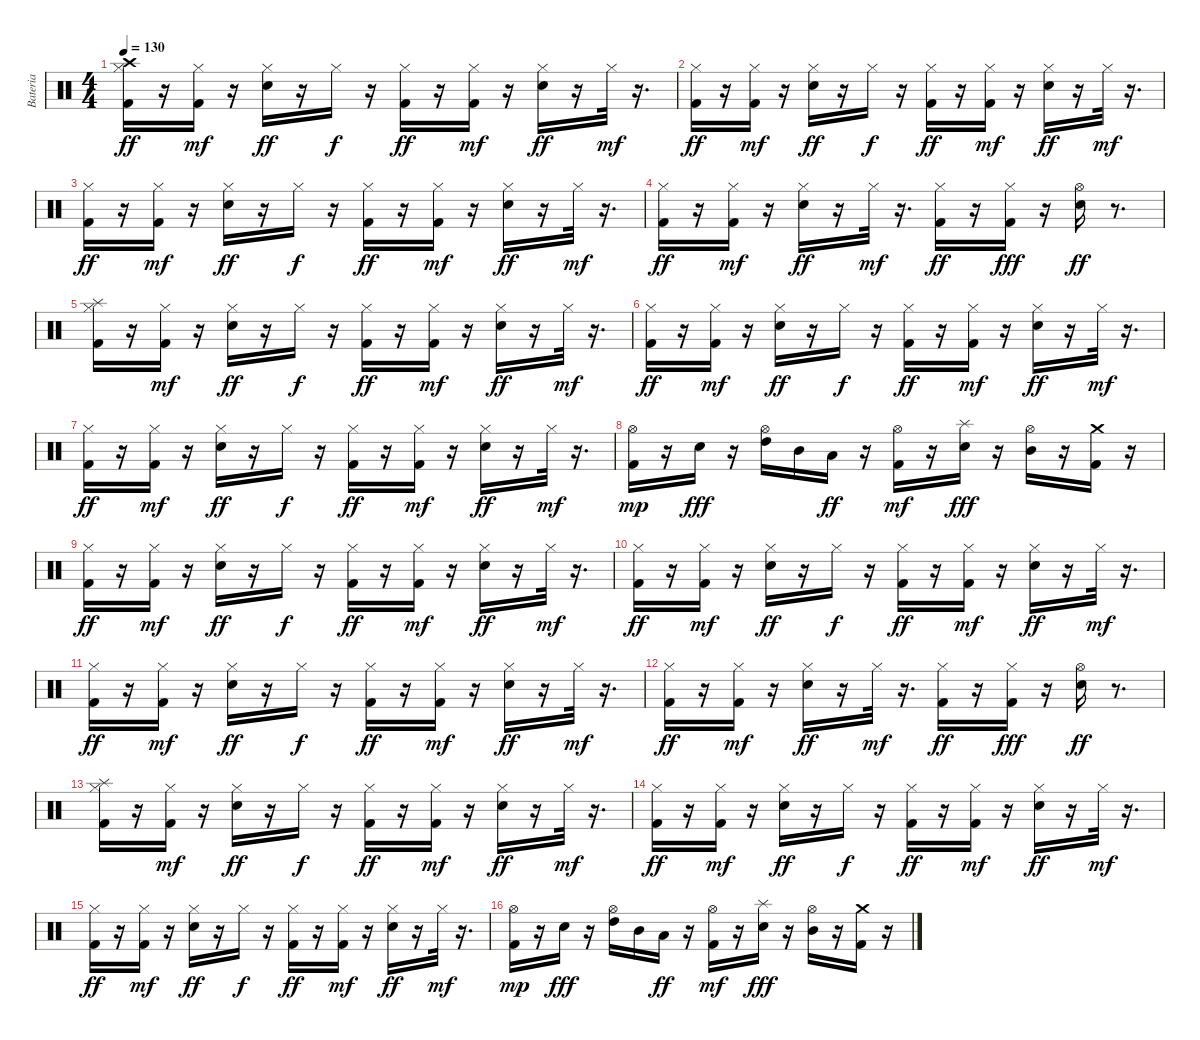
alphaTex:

\track ("Bateria" "Bateria") {instrument percussion}
\staff {score}
\articulation defaults
\ts (4 4)
\tempo 130
\clef neutral
\ks c
("Kick (hit) 2" "Hi-Hat (closed)" "Crash high (hit)").16{dy ff} r.16 ("Kick (hit) 2" "Hi-Hat (closed)").16{dy mf} r.16 ("Electric Snare (hit)" "Hi-Hat (closed)").16{dy ff} r.16 "Hi-Hat (closed)".16{dy f} r.16 ("Kick (hit) 2" "Hi-Hat (closed)").16{dy ff} r.16 ("Kick (hit) 2" "Hi-Hat (closed)").16{dy mf} r.16 ("Electric Snare (hit)" "Hi-Hat (closed)").16{dy ff} r.16 "Hi-Hat (closed)".32{dy mf} r.16{d} |
("Kick (hit) 2" "Hi-Hat (closed)").16{dy ff} r.16 ("Kick (hit) 2" "Hi-Hat (closed)").16{dy mf} r.16 ("Electric Snare (hit)" "Hi-Hat (closed)").16{dy ff} r.16 "Hi-Hat (closed)".16{dy f} r.16 ("Kick (hit) 2" "Hi-Hat (closed)").16{dy ff} r.16 ("Kick (hit) 2" "Hi-Hat (closed)").16{dy mf} r.16 ("Electric Snare (hit)" "Hi-Hat (closed)").16{dy ff} r.16 "Hi-Hat (closed)".32{dy mf} r.16{d} |
("Kick (hit) 2" "Hi-Hat (closed)").16{dy ff} r.16 ("Kick (hit) 2" "Hi-Hat (closed)").16{dy mf} r.16 ("Electric Snare (hit)" "Hi-Hat (closed)").16{dy ff} r.16 "Hi-Hat (closed)".16{dy f} r.16 ("Kick (hit) 2" "Hi-Hat (closed)").16{dy ff} r.16 ("Kick (hit) 2" "Hi-Hat (closed)").16{dy mf} r.16 ("Electric Snare (hit)" "Hi-Hat (closed)").16{dy ff} r.16 "Hi-Hat (closed)".32{dy mf} r.16{d} |
("Kick (hit) 2" "Hi-Hat (closed)").16{dy ff} r.16 ("Kick (hit) 2" "Hi-Hat (closed)").16{dy mf} r.16 ("Electric Snare (hit)" "Hi-Hat (closed)").16{dy ff} r.16 "Hi-Hat (closed)".32{dy mf} r.16{d} ("Kick (hit) 2" "Hi-Hat (closed)").16{dy ff} r.16 ("Kick (hit) 2" "Hi-Hat (closed)").16{dy fff} r.16 ("Electric Snare (hit)" "Hi-Hat (open)").16{dy ff} r.8{d} |
("Kick (hit) 2" "Hi-Hat (closed)" "Splash (hit)").16 r.16 ("Kick (hit) 2" "Hi-Hat (closed)").16{dy mf} r.16 ("Electric Snare (hit)" "Hi-Hat (closed)").16{dy ff} r.16 "Hi-Hat (closed)".16{dy f} r.16 ("Kick (hit) 2" "Hi-Hat (closed)").16{dy ff} r.16 ("Kick (hit) 2" "Hi-Hat (closed)").16{dy mf} r.16 ("Electric Snare (hit)" "Hi-Hat (closed)").16{dy ff} r.16 "Hi-Hat (closed)".32{dy mf} r.16{d} |
("Kick (hit) 2" "Hi-Hat (closed)").16{dy ff} r.16 ("Kick (hit) 2" "Hi-Hat (closed)").16{dy mf} r.16 ("Electric Snare (hit)" "Hi-Hat (closed)").16{dy ff} r.16 "Hi-Hat (closed)".16{dy f} r.16 ("Kick (hit) 2" "Hi-Hat (closed)").16{dy ff} r.16 ("Kick (hit) 2" "Hi-Hat (closed)").16{dy mf} r.16 ("Electric Snare (hit)" "Hi-Hat (closed)").16{dy ff} r.16 "Hi-Hat (closed)".32{dy mf} r.16{d} |
("Kick (hit) 2" "Hi-Hat (closed)").16{dy ff} r.16 ("Kick (hit) 2" "Hi-Hat (closed)").16{dy mf} r.16 ("Electric Snare (hit)" "Hi-Hat (closed)").16{dy ff} r.16 "Hi-Hat (closed)".16{dy f} r.16 ("Kick (hit) 2" "Hi-Hat (closed)").16{dy ff} r.16 ("Kick (hit) 2" "Hi-Hat (closed)").16{dy mf} r.16 ("Electric Snare (hit)" "Hi-Hat (closed)").16{dy ff} r.16 "Hi-Hat (closed)".32{dy mf} r.16{d} |
("Kick (hit) 2" "Hi-Hat (open)").16{dy mp} r.16 "Electric Snare (hit)".16{dy fff} r.16 ("Hi-Hat (open)" "High Tom (hit)").16 "Mid Tom (hit)".16 "Low Tom (hit)".16{dy ff} r.16 ("Kick (hit) 2" "Hi-Hat (open)").16{dy mf} r.16 ("Electric Snare (hit)" "Splash (hit)").16{dy fff} r.16 ("Hi-Hat (open)" "Mid Tom (hit)").16 r.16 ("Kick (hit) 2" "Crash medium (hit)").16 r.16 |
("Kick (hit) 2" "Hi-Hat (closed)").16{dy ff} r.16 ("Kick (hit) 2" "Hi-Hat (closed)").16{dy mf} r.16 ("Electric Snare (hit)" "Hi-Hat (closed)").16{dy ff} r.16 "Hi-Hat (closed)".16{dy f} r.16 ("Kick (hit) 2" "Hi-Hat (closed)").16{dy ff} r.16 ("Kick (hit) 2" "Hi-Hat (closed)").16{dy mf} r.16 ("Electric Snare (hit)" "Hi-Hat (closed)").16{dy ff} r.16 "Hi-Hat (closed)".32{dy mf} r.16{d} |
("Kick (hit) 2" "Hi-Hat (closed)").16{dy ff} r.16 ("Kick (hit) 2" "Hi-Hat (closed)").16{dy mf} r.16 ("Electric Snare (hit)" "Hi-Hat (closed)").16{dy ff} r.16 "Hi-Hat (closed)".16{dy f} r.16 ("Kick (hit) 2" "Hi-Hat (closed)").16{dy ff} r.16 ("Kick (hit) 2" "Hi-Hat (closed)").16{dy mf} r.16 ("Electric Snare (hit)" "Hi-Hat (closed)").16{dy ff} r.16 "Hi-Hat (closed)".32{dy mf} r.16{d} |
("Kick (hit) 2" "Hi-Hat (closed)").16{dy ff} r.16 ("Kick (hit) 2" "Hi-Hat (closed)").16{dy mf} r.16 ("Electric Snare (hit)" "Hi-Hat (closed)").16{dy ff} r.16 "Hi-Hat (closed)".16{dy f} r.16 ("Kick (hit) 2" "Hi-Hat (closed)").16{dy ff} r.16 ("Kick (hit) 2" "Hi-Hat (closed)").16{dy mf} r.16 ("Electric Snare (hit)" "Hi-Hat (closed)").16{dy ff} r.16 "Hi-Hat (closed)".32{dy mf} r.16{d} |
("Kick (hit) 2" "Hi-Hat (closed)").16{dy ff} r.16 ("Kick (hit) 2" "Hi-Hat (closed)").16{dy mf} r.16 ("Electric Snare (hit)" "Hi-Hat (closed)").16{dy ff} r.16 "Hi-Hat (closed)".32{dy mf} r.16{d} ("Kick (hit) 2" "Hi-Hat (closed)").16{dy ff} r.16 ("Kick (hit) 2" "Hi-Hat (closed)").16{dy fff} r.16 ("Electric Snare (hit)" "Hi-Hat (open)").16{dy ff} r.8{d} |
("Kick (hit) 2" "Hi-Hat (closed)" "Splash (hit)").16 r.16 ("Kick (hit) 2" "Hi-Hat (closed)").16{dy mf} r.16 ("Electric Snare (hit)" "Hi-Hat (closed)").16{dy ff} r.16 "Hi-Hat (closed)".16{dy f} r.16 ("Kick (hit) 2" "Hi-Hat (closed)").16{dy ff} r.16 ("Kick (hit) 2" "Hi-Hat (closed)").16{dy mf} r.16 ("Electric Snare (hit)" "Hi-Hat (closed)").16{dy ff} r.16 "Hi-Hat (closed)".32{dy mf} r.16{d} |
("Kick (hit) 2" "Hi-Hat (closed)").16{dy ff} r.16 ("Kick (hit) 2" "Hi-Hat (closed)").16{dy mf} r.16 ("Electric Snare (hit)" "Hi-Hat (closed)").16{dy ff} r.16 "Hi-Hat (closed)".16{dy f} r.16 ("Kick (hit) 2" "Hi-Hat (closed)").16{dy ff} r.16 ("Kick (hit) 2" "Hi-Hat (closed)").16{dy mf} r.16 ("Electric Snare (hit)" "Hi-Hat (closed)").16{dy ff} r.16 "Hi-Hat (closed)".32{dy mf} r.16{d} |
("Kick (hit) 2" "Hi-Hat (closed)").16{dy ff} r.16 ("Kick (hit) 2" "Hi-Hat (closed)").16{dy mf} r.16 ("Electric Snare (hit)" "Hi-Hat (closed)").16{dy ff} r.16 "Hi-Hat (closed)".16{dy f} r.16 ("Kick (hit) 2" "Hi-Hat (closed)").16{dy ff} r.16 ("Kick (hit) 2" "Hi-Hat (closed)").16{dy mf} r.16 ("Electric Snare (hit)" "Hi-Hat (closed)").16{dy ff} r.16 "Hi-Hat (closed)".32{dy mf} r.16{d} |
("Kick (hit) 2" "Hi-Hat (open)").16{dy mp} r.16 "Electric Snare (hit)".16{dy fff} r.16 ("Hi-Hat (open)" "High Tom (hit)").16 "Mid Tom (hit)".16 "Low Tom (hit)".16{dy ff} r.16 ("Kick (hit) 2" "Hi-Hat (open)").16{dy mf} r.16 ("Electric Snare (hit)" "Splash (hit)").16{dy fff} r.16 ("Hi-Hat (open)" "Mid Tom (hit)").16 r.16 ("Kick (hit) 2" "Crash medium (hit)").16 r.16
